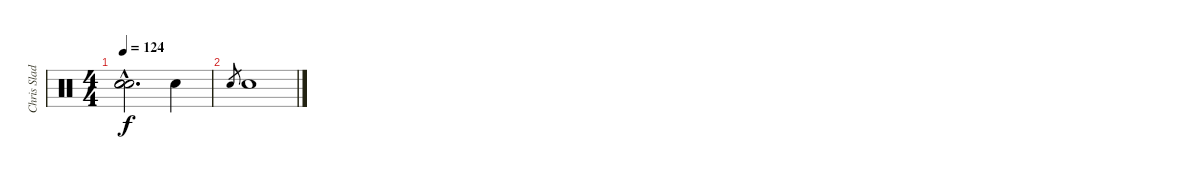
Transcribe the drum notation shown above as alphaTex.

\track ("Chris Slade" "Chris Slad") {instrument percussion}
\staff {score}
\articulation defaults
\ts (4 4)
\tempo 124
\clef neutral
\ks c
("Snare (hit)"{hac t} "Snare (hit)"{hac t} "Snare (hit)"{hac t}).2{d dy f} "Snare (hit) 2".4 |
"Snare (hit) 2".8{gr} "Snare (hit) 2".1
